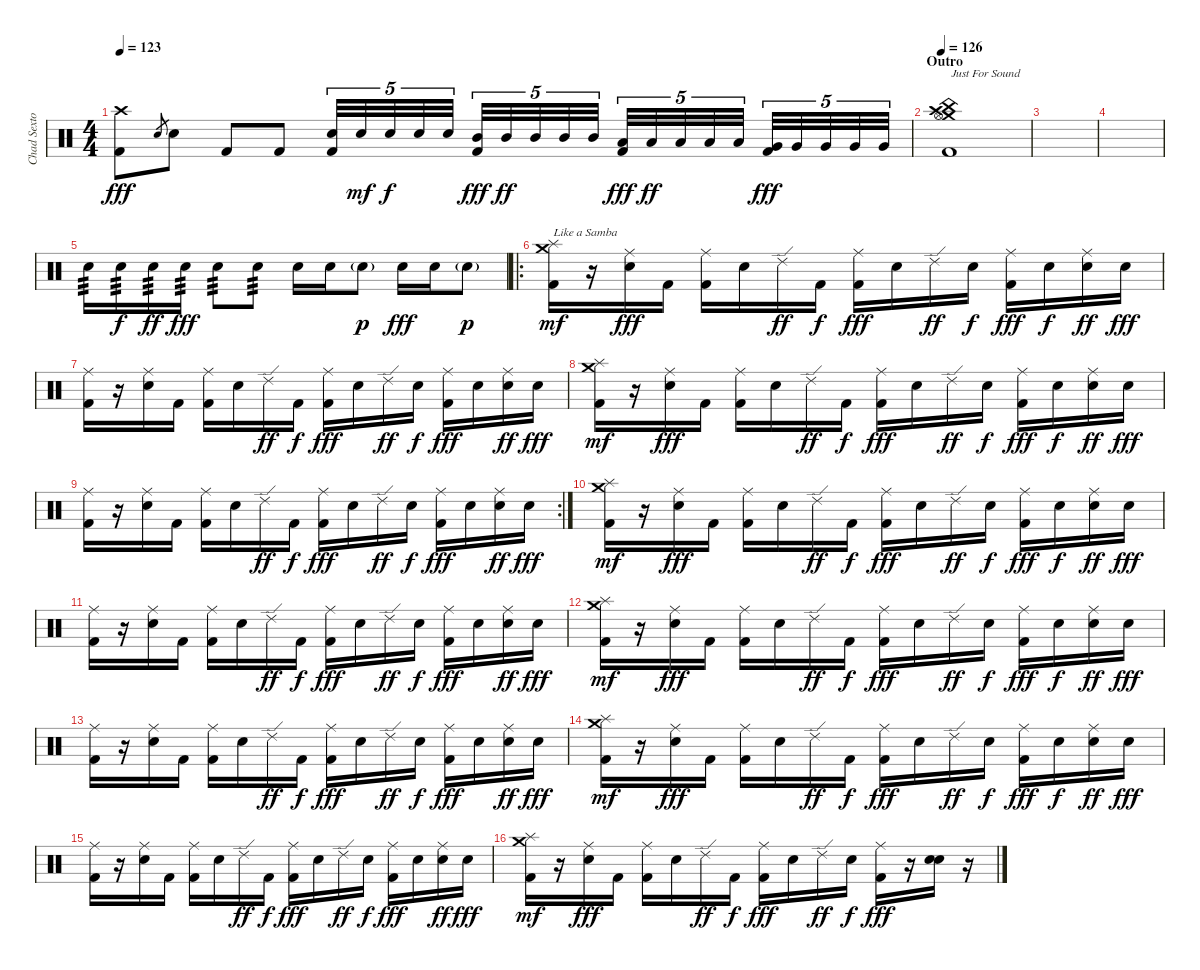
\track ("Chad Sexton (Drums)" "Chad Sexto") {instrument percussion}
\staff {score}
\articulation defaults
\ts (4 4)
\tempo 123
\clef neutral
\ks c
("Crash high (hit)" "Kick (hit) 2").8{dy fff} "Electric Snare (hit)".8{gr} "Electric Snare (hit)".8 "Kick (hit) 2".8 "Kick (hit) 2".8 ("Electric Snare (hit)" "Kick (hit) 2").32{tu (5 4)} "Electric Snare (hit)".32{tu (5 4) dy mf} "Electric Snare (hit)".32{tu (5 4) dy f} "Electric Snare (hit)".32{tu (5 4)} "Electric Snare (hit)".32{tu (5 4)} ("Mid Tom (hit)" "Kick (hit) 2").32{tu (5 4) dy fff} "Mid Tom (hit)".32{tu (5 4) dy ff} "Mid Tom (hit)".32{tu (5 4)} "Mid Tom (hit)".32{tu (5 4)} "Mid Tom (hit)".32{tu (5 4)} ("Low Tom (hit)" "Kick (hit) 2").32{tu (5 4) dy fff} "Low Tom (hit)".32{tu (5 4) dy ff} "Low Tom (hit)".32{tu (5 4)} "Low Tom (hit)".32{tu (5 4)} "Low Tom (hit)".32{tu (5 4)} ("Very Low Tom (hit)" "Kick (hit) 2").32{tu (5 4) dy fff} "Very Low Tom (hit)".32{tu (5 4)} "Very Low Tom (hit)".32{tu (5 4)} "Very Low Tom (hit)".32{tu (5 4)} "Very Low Tom (hit)".32{tu (5 4)} |
\section ("" "Outro")
\tempo 126
("Crash high (hit)" "Kick (hit) 2" "Crash medium (hit)" "Hi-Hat (open)" "China (hit)").1{txt "Just For Sound"} |
|
|
"Electric Snare (hit)".16{tp 3} "Electric Snare (hit)".16{tp 3 dy f} "Electric Snare (hit)".16{tp 3 dy ff} "Electric Snare (hit)".16{tp 3 dy fff} "Electric Snare (hit)".8{tp 3} "Electric Snare (hit)".8{tp 3} "Electric Snare (hit)".16 "Electric Snare (hit)".16 "Electric Snare (hit)"{g}.8{dy p} "Electric Snare (hit)".16{dy fff} "Electric Snare (hit)".16 "Electric Snare (hit)"{g}.8{dy p} |
\ro
\section ("" "")
("Splash (hit)" "Kick (hit) 2" "Crash medium (hit)").16{txt "Like a Samba" dy mf} r.16 ("Ride (middle)" "Electric Snare (hit)").16{dy fff} "Kick (hit) 2".16 ("Ride (middle)" "Kick (hit) 2").16 "Electric Snare (hit)".16 "Ride (edge) 2".16{dy ff} "Kick (hit) 2".16{dy f} ("Ride (middle)" "Kick (hit) 2").16{dy fff} "Electric Snare (hit)".16 "Ride (edge) 2".16{dy ff} "Electric Snare (hit)".16{dy f} ("Ride (middle)" "Kick (hit) 2").16{dy fff} "Electric Snare (hit)".16{dy f} ("Ride (middle)" "Electric Snare (hit)").16{dy ff} "Electric Snare (hit)".16{dy fff} |
("Ride (middle)" "Kick (hit) 2").16 r.16 ("Ride (middle)" "Electric Snare (hit)").16 "Kick (hit) 2".16 ("Ride (middle)" "Kick (hit) 2").16 "Electric Snare (hit)".16 "Ride (edge) 2".16{dy ff} "Kick (hit) 2".16{dy f} ("Ride (middle)" "Kick (hit) 2").16{dy fff} "Electric Snare (hit)".16 "Ride (edge) 2".16{dy ff} "Electric Snare (hit)".16{dy f} ("Ride (middle)" "Kick (hit) 2").16{dy fff} "Snare (hit) 2".16 ("Ride (middle)" "Electric Snare (hit)").16{dy ff} "Electric Snare (hit)".16{dy fff} |
("Splash (hit)" "Kick (hit) 2" "Crash medium (hit)").16{dy mf} r.16 ("Ride (middle)" "Electric Snare (hit)").16{dy fff} "Kick (hit) 2".16 ("Ride (middle)" "Kick (hit) 2").16 "Electric Snare (hit)".16 "Ride (edge) 2".16{dy ff} "Kick (hit) 2".16{dy f} ("Ride (middle)" "Kick (hit) 2").16{dy fff} "Electric Snare (hit)".16 "Ride (edge) 2".16{dy ff} "Electric Snare (hit)".16{dy f} ("Ride (middle)" "Kick (hit) 2").16{dy fff} "Electric Snare (hit)".16{dy f} ("Ride (middle)" "Electric Snare (hit)").16{dy ff} "Electric Snare (hit)".16{dy fff} |
\rc 2
("Ride (middle)" "Kick (hit) 2").16 r.16 ("Ride (middle)" "Electric Snare (hit)").16 "Kick (hit) 2".16 ("Ride (middle)" "Kick (hit) 2").16 "Electric Snare (hit)".16 "Ride (edge) 2".16{dy ff} "Kick (hit) 2".16{dy f} ("Ride (middle)" "Kick (hit) 2").16{dy fff} "Electric Snare (hit)".16 "Ride (edge) 2".16{dy ff} "Electric Snare (hit)".16{dy f} ("Ride (middle)" "Kick (hit) 2").16{dy fff} "Snare (hit) 2".16 ("Ride (middle)" "Electric Snare (hit)").16{dy ff} "Electric Snare (hit)".16{dy fff} |
\section ("" "")
("Splash (hit)" "Kick (hit) 2" "Crash medium (hit)").16{dy mf} r.16 ("Ride (middle)" "Electric Snare (hit)").16{dy fff} "Kick (hit) 2".16 ("Ride (middle)" "Kick (hit) 2").16 "Electric Snare (hit)".16 "Ride (edge) 2".16{dy ff} "Kick (hit) 2".16{dy f} ("Ride (middle)" "Kick (hit) 2").16{dy fff} "Electric Snare (hit)".16 "Ride (edge) 2".16{dy ff} "Electric Snare (hit)".16{dy f} ("Ride (middle)" "Kick (hit) 2").16{dy fff} "Electric Snare (hit)".16{dy f} ("Ride (middle)" "Electric Snare (hit)").16{dy ff} "Electric Snare (hit)".16{dy fff} |
("Ride (middle)" "Kick (hit) 2").16 r.16 ("Ride (middle)" "Electric Snare (hit)").16 "Kick (hit) 2".16 ("Ride (middle)" "Kick (hit) 2").16 "Electric Snare (hit)".16 "Ride (edge) 2".16{dy ff} "Kick (hit) 2".16{dy f} ("Ride (middle)" "Kick (hit) 2").16{dy fff} "Electric Snare (hit)".16 "Ride (edge) 2".16{dy ff} "Electric Snare (hit)".16{dy f} ("Ride (middle)" "Kick (hit) 2").16{dy fff} "Snare (hit) 2".16 ("Ride (middle)" "Electric Snare (hit)").16{dy ff} "Electric Snare (hit)".16{dy fff} |
("Splash (hit)" "Kick (hit) 2" "Crash medium (hit)").16{dy mf} r.16 ("Ride (middle)" "Electric Snare (hit)").16{dy fff} "Kick (hit) 2".16 ("Ride (middle)" "Kick (hit) 2").16 "Electric Snare (hit)".16 "Ride (edge) 2".16{dy ff} "Kick (hit) 2".16{dy f} ("Ride (middle)" "Kick (hit) 2").16{dy fff} "Electric Snare (hit)".16 "Ride (edge) 2".16{dy ff} "Electric Snare (hit)".16{dy f} ("Ride (middle)" "Kick (hit) 2").16{dy fff} "Electric Snare (hit)".16{dy f} ("Ride (middle)" "Electric Snare (hit)").16{dy ff} "Electric Snare (hit)".16{dy fff} |
("Ride (middle)" "Kick (hit) 2").16 r.16 ("Ride (middle)" "Electric Snare (hit)").16 "Kick (hit) 2".16 ("Ride (middle)" "Kick (hit) 2").16 "Electric Snare (hit)".16 "Ride (edge) 2".16{dy ff} "Kick (hit) 2".16{dy f} ("Ride (middle)" "Kick (hit) 2").16{dy fff} "Electric Snare (hit)".16 "Ride (edge) 2".16{dy ff} "Electric Snare (hit)".16{dy f} ("Ride (middle)" "Kick (hit) 2").16{dy fff} "Snare (hit) 2".16 ("Ride (middle)" "Electric Snare (hit)").16{dy ff} "Electric Snare (hit)".16{dy fff} |
("Splash (hit)" "Kick (hit) 2" "Crash medium (hit)").16{dy mf} r.16 ("Ride (middle)" "Electric Snare (hit)").16{dy fff} "Kick (hit) 2".16 ("Ride (middle)" "Kick (hit) 2").16 "Electric Snare (hit)".16 "Ride (edge) 2".16{dy ff} "Kick (hit) 2".16{dy f} ("Ride (middle)" "Kick (hit) 2").16{dy fff} "Electric Snare (hit)".16 "Ride (edge) 2".16{dy ff} "Electric Snare (hit)".16{dy f} ("Ride (middle)" "Kick (hit) 2").16{dy fff} "Electric Snare (hit)".16{dy f} ("Ride (middle)" "Electric Snare (hit)").16{dy ff} "Electric Snare (hit)".16{dy fff} |
("Ride (middle)" "Kick (hit) 2").16 r.16 ("Ride (middle)" "Electric Snare (hit)").16 "Kick (hit) 2".16 ("Ride (middle)" "Kick (hit) 2").16 "Electric Snare (hit)".16 "Ride (edge) 2".16{dy ff} "Kick (hit) 2".16{dy f} ("Ride (middle)" "Kick (hit) 2").16{dy fff} "Electric Snare (hit)".16 "Ride (edge) 2".16{dy ff} "Electric Snare (hit)".16{dy f} ("Ride (middle)" "Kick (hit) 2").16{dy fff} "Snare (hit) 2".16 ("Ride (middle)" "Electric Snare (hit)").16{dy ff} "Electric Snare (hit)".16{dy fff} |
("Splash (hit)" "Kick (hit) 2" "Crash medium (hit)").16{dy mf} r.16 ("Ride (middle)" "Electric Snare (hit)").16{dy fff} "Kick (hit) 2".16 ("Ride (middle)" "Kick (hit) 2").16 "Electric Snare (hit)".16 "Ride (edge) 2".16{dy ff} "Kick (hit) 2".16{dy f} ("Ride (middle)" "Kick (hit) 2").16{dy fff} "Electric Snare (hit)".16 "Ride (edge) 2".16{dy ff} "Electric Snare (hit)".16{dy f} ("Ride (middle)" "Kick (hit) 2").16{dy fff} r.16 ("Electric Snare (hit)" "Snare (hit) 2").16 r.16
